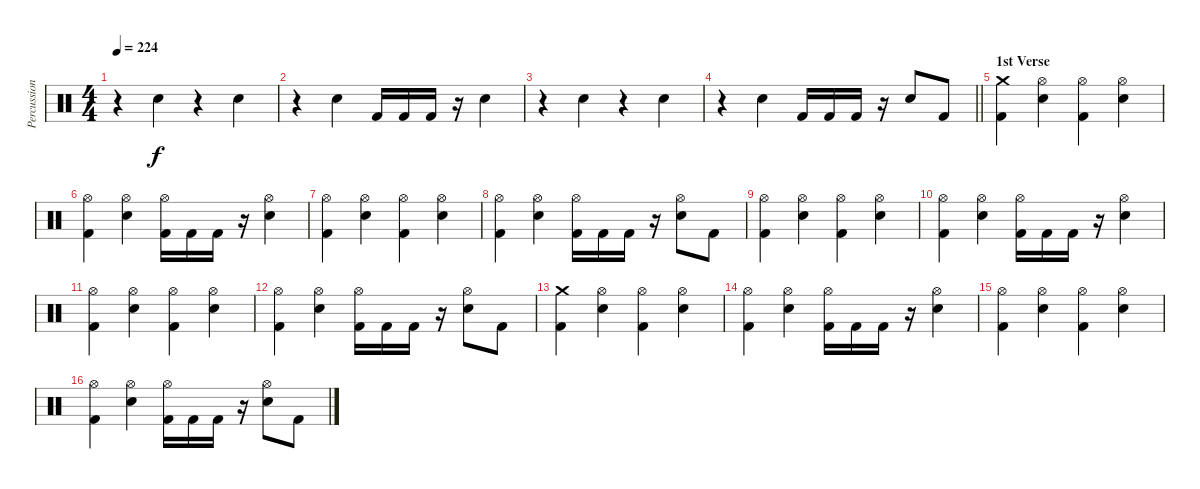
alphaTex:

\track ("Percussion" "Percussion") {instrument percussion}
\staff {score}
\articulation defaults
\ts (4 4)
\tempo 224
\clef neutral
\ks c
r.4{dy f} "Snare (hit) 2".4 r.4 "Snare (hit) 2".4 |
r.4 "Snare (hit) 2".4 "Kick (hit) 2".16 "Kick (hit) 2".16 "Kick (hit) 2".16 r.16 "Snare (hit) 2".4 |
r.4 "Snare (hit) 2".4 r.4 "Snare (hit) 2".4 |
\barLineRight lightlight
r.4 "Snare (hit) 2".4 "Kick (hit) 2".16 "Kick (hit) 2".16 "Kick (hit) 2".16 r.16 "Snare (hit) 2".8 "Kick (hit) 2".8 |
\section ("" "1st Verse")
("Kick (hit) 2" "Crash medium (hit)").4 ("Snare (hit) 2" "Hi-Hat (open)").4 ("Kick (hit) 2" "Hi-Hat (open)").4 ("Snare (hit) 2" "Hi-Hat (open)").4 |
("Kick (hit) 2" "Hi-Hat (open)").4 ("Snare (hit) 2" "Hi-Hat (open)").4 ("Kick (hit) 2" "Hi-Hat (open)").16 "Kick (hit) 2".16 "Kick (hit) 2".16 r.16 ("Snare (hit) 2" "Hi-Hat (open)").4 |
("Kick (hit) 2" "Hi-Hat (open)").4 ("Snare (hit) 2" "Hi-Hat (open)").4 ("Kick (hit) 2" "Hi-Hat (open)").4 ("Snare (hit) 2" "Hi-Hat (open)").4 |
("Kick (hit) 2" "Hi-Hat (open)").4 ("Snare (hit) 2" "Hi-Hat (open)").4 ("Kick (hit) 2" "Hi-Hat (open)").16 "Kick (hit) 2".16 "Kick (hit) 2".16 r.16 ("Snare (hit) 2" "Hi-Hat (open)").8 "Kick (hit) 2".8 |
("Kick (hit) 2" "Hi-Hat (open)").4 ("Snare (hit) 2" "Hi-Hat (open)").4 ("Kick (hit) 2" "Hi-Hat (open)").4 ("Snare (hit) 2" "Hi-Hat (open)").4 |
("Kick (hit) 2" "Hi-Hat (open)").4 ("Snare (hit) 2" "Hi-Hat (open)").4 ("Kick (hit) 2" "Hi-Hat (open)").16 "Kick (hit) 2".16 "Kick (hit) 2".16 r.16 ("Snare (hit) 2" "Hi-Hat (open)").4 |
("Kick (hit) 2" "Hi-Hat (open)").4 ("Snare (hit) 2" "Hi-Hat (open)").4 ("Kick (hit) 2" "Hi-Hat (open)").4 ("Snare (hit) 2" "Hi-Hat (open)").4 |
("Kick (hit) 2" "Hi-Hat (open)").4 ("Snare (hit) 2" "Hi-Hat (open)").4 ("Kick (hit) 2" "Hi-Hat (open)").16 "Kick (hit) 2".16 "Kick (hit) 2".16 r.16 ("Snare (hit) 2" "Hi-Hat (open)").8 "Kick (hit) 2".8 |
("Kick (hit) 2" "Crash medium (hit)").4 ("Snare (hit) 2" "Hi-Hat (open)").4 ("Kick (hit) 2" "Hi-Hat (open)").4 ("Snare (hit) 2" "Hi-Hat (open)").4 |
("Kick (hit) 2" "Hi-Hat (open)").4 ("Snare (hit) 2" "Hi-Hat (open)").4 ("Kick (hit) 2" "Hi-Hat (open)").16 "Kick (hit) 2".16 "Kick (hit) 2".16 r.16 ("Snare (hit) 2" "Hi-Hat (open)").4 |
("Kick (hit) 2" "Hi-Hat (open)").4 ("Snare (hit) 2" "Hi-Hat (open)").4 ("Kick (hit) 2" "Hi-Hat (open)").4 ("Snare (hit) 2" "Hi-Hat (open)").4 |
("Kick (hit) 2" "Hi-Hat (open)").4 ("Snare (hit) 2" "Hi-Hat (open)").4 ("Kick (hit) 2" "Hi-Hat (open)").16 "Kick (hit) 2".16 "Kick (hit) 2".16 r.16 ("Snare (hit) 2" "Hi-Hat (open)").8 "Kick (hit) 2".8
